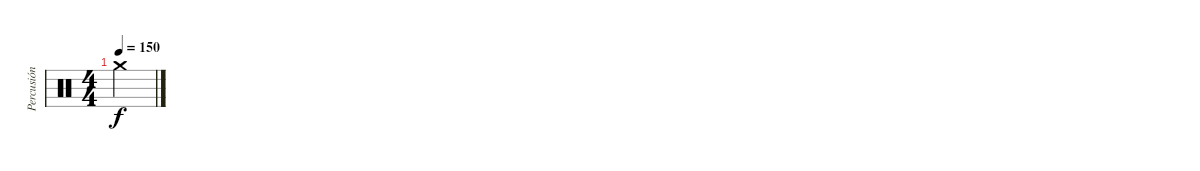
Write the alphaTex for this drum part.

\track ("Percusión" "Percusión") {instrument percussion}
\staff {score}
\articulation defaults
\ts (4 4)
\tempo 150
\clef neutral
\ks c "Crash medium (hit)".4{dy f}
